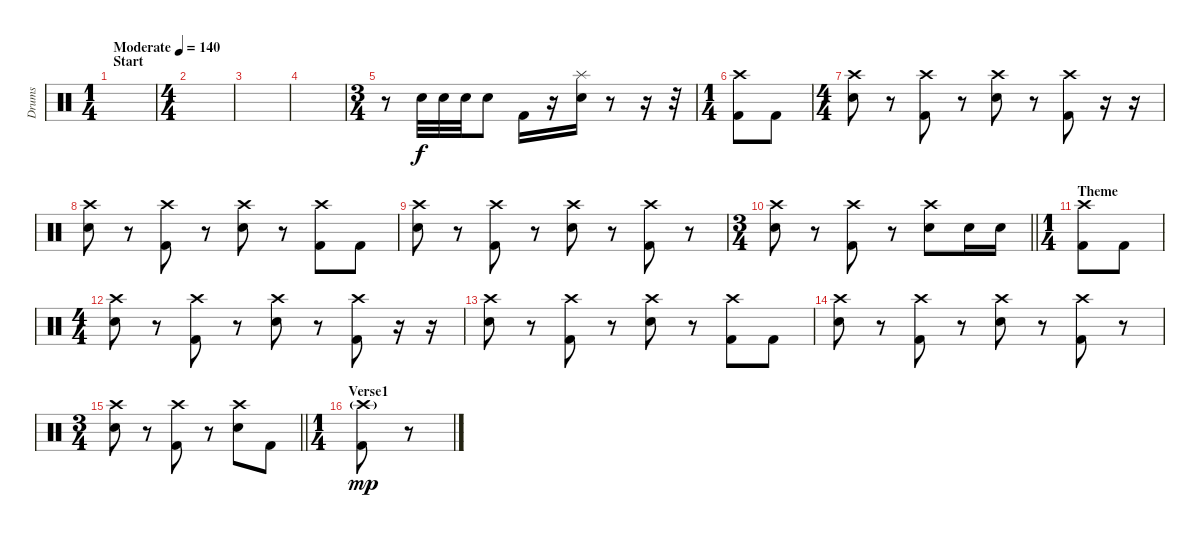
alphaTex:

\track ("Drums" "Drums") {instrument percussion}
\staff {score}
\articulation defaults
\ts (1 4)
\section ("" "Start")
\tempo (140 "Moderate")
\clef neutral
\ks c
|
\ts (4 4)
|
|
|
\ts (3 4)
r.8 "Electric Snare (hit)".32 "Electric Snare (hit)".32 "Electric Snare (hit)".32 "Electric Snare (hit)".8 "Kick (hit) 2".16 r.16 ("Splash (hit)" "Electric Snare (hit)").16 r.8 r.16 r.32 |
\ts (1 4)
("Crash high (hit)" "Kick (hit) 2").8 "Kick (hit) 2".8 |
\ts (4 4)
("Crash high (hit)" "Electric Snare (hit)").8 r.8 ("Crash high (hit)" "Kick (hit) 2").8 r.8 ("Crash high (hit)" "Electric Snare (hit)").8 r.8 ("Crash high (hit)" "Kick (hit) 2").8 r.16 r.16 |
("Crash high (hit)" "Electric Snare (hit)").8 r.8 ("Crash high (hit)" "Kick (hit) 2").8 r.8 ("Crash high (hit)" "Electric Snare (hit)").8 r.8 ("Crash high (hit)" "Kick (hit) 2").8 "Kick (hit) 2".8 |
("Crash high (hit)" "Electric Snare (hit)").8 r.8 ("Crash high (hit)" "Kick (hit) 2").8 r.8 ("Crash high (hit)" "Electric Snare (hit)").8 r.8 ("Crash high (hit)" "Kick (hit) 2").8 r.8 |
\ts (3 4)
\barLineRight lightlight
("Crash high (hit)" "Electric Snare (hit)").8 r.8 ("Crash high (hit)" "Kick (hit) 2").8 r.8 ("Crash high (hit)" "Electric Snare (hit)").8 "Electric Snare (hit)".16 "Electric Snare (hit)".16 |
\ts (1 4)
\section ("" "Theme")
("Crash high (hit)" "Kick (hit) 2").8 "Kick (hit) 2".8 |
\ts (4 4)
("Crash high (hit)" "Electric Snare (hit)").8 r.8 ("Crash high (hit)" "Kick (hit) 2").8 r.8 ("Crash high (hit)" "Electric Snare (hit)").8 r.8 ("Crash high (hit)" "Kick (hit) 2").8 r.16 r.16 |
("Crash high (hit)" "Electric Snare (hit)").8 r.8 ("Crash high (hit)" "Kick (hit) 2").8 r.8 ("Crash high (hit)" "Electric Snare (hit)").8 r.8 ("Crash high (hit)" "Kick (hit) 2").8 "Kick (hit) 2".8 |
("Crash high (hit)" "Electric Snare (hit)").8 r.8 ("Crash high (hit)" "Kick (hit) 2").8 r.8 ("Crash high (hit)" "Electric Snare (hit)").8 r.8 ("Crash high (hit)" "Kick (hit) 2").8 r.8 |
\ts (3 4)
\barLineRight lightlight
("Crash high (hit)" "Electric Snare (hit)").8 r.8 ("Crash high (hit)" "Kick (hit) 2").8 r.8 ("Crash high (hit)" "Electric Snare (hit)").8 "Kick (hit) 2".8 |
\ts (1 4)
\section ("" "Verse1")
("Crash high (hit)"{g} "Kick (hit) 2").8{dy mp} r.8
